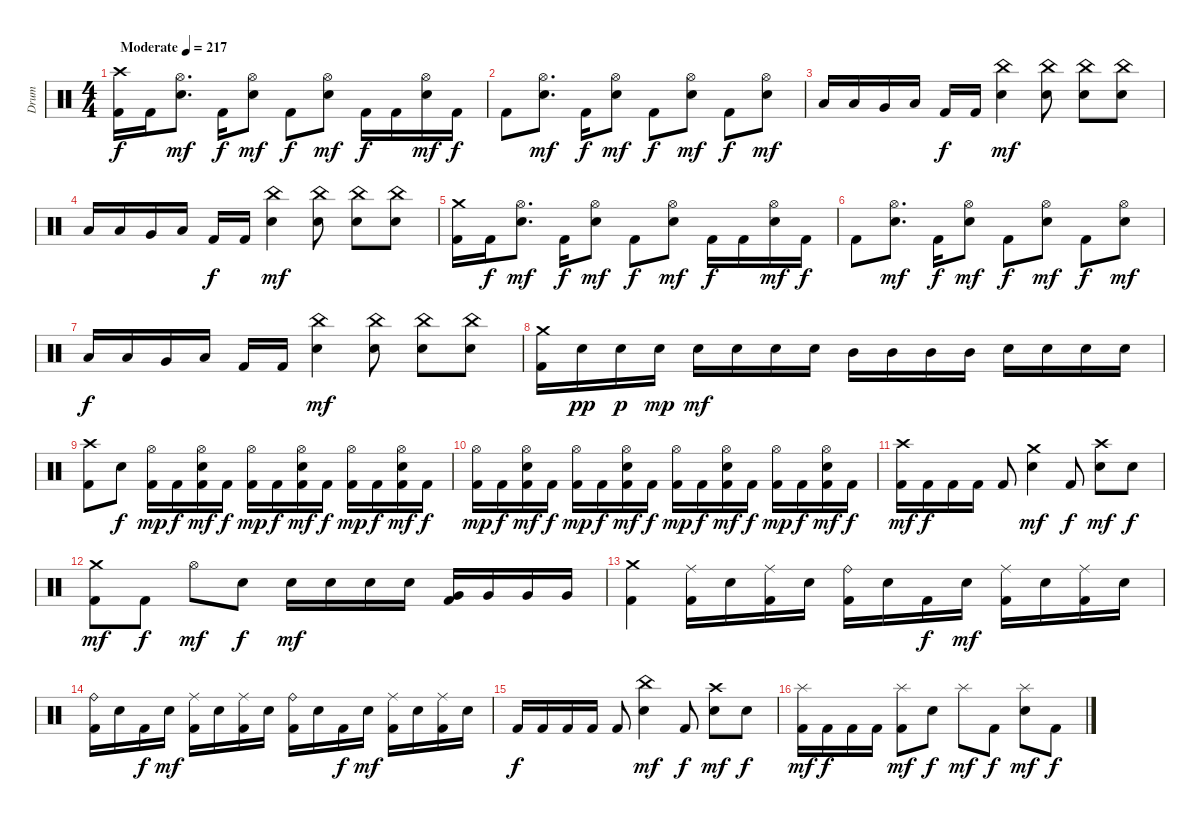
\track ("Drum" "Drum") {instrument percussion}
\staff {score}
\articulation defaults
\ts (4 4)
\tempo (217 "Moderate")
\clef neutral
\ks c
("Crash high (hit)" "Kick (hit) 2").16{dy f} "Kick (hit) 2".16 ("Hi-Hat (open)" "Electric Snare (hit)").8{d dy mf} "Kick (hit) 2".16{dy f} ("Hi-Hat (open)" "Electric Snare (hit)").8{dy mf} "Kick (hit) 2".8{dy f} ("Hi-Hat (open)" "Electric Snare (hit)").8{dy mf} "Kick (hit) 2".16{dy f} "Kick (hit) 2".16 ("Hi-Hat (open)" "Electric Snare (hit)").16{dy mf} "Kick (hit) 2".16{dy f} |
"Kick (hit) 2".8 ("Hi-Hat (open)" "Electric Snare (hit)").8{d dy mf} "Kick (hit) 2".16{dy f} ("Hi-Hat (open)" "Electric Snare (hit)").8{dy mf} "Kick (hit) 2".8{dy f} ("Hi-Hat (open)" "Electric Snare (hit)").8{dy mf} "Kick (hit) 2".8{dy f} ("Hi-Hat (open)" "Electric Snare (hit)").8{dy mf} |
"Low Tom (hit)".16 "Low Floor Tom (hit)".16 "Very Low Tom (hit)".16 "Low Floor Tom (hit)".16 "Kick (hit) 2".16{dy f} "Kick (hit) 2".16 ("China (hit)" "Electric Snare (hit)").4{dy mf} ("China (hit)" "Electric Snare (hit)").8 ("China (hit)" "Electric Snare (hit)").8 ("China (hit)" "Electric Snare (hit)").8 |
"Low Tom (hit)".16 "Low Floor Tom (hit)".16 "Very Low Tom (hit)".16 "Low Floor Tom (hit)".16 "Kick (hit) 2".16{dy f} "Kick (hit) 2".16 ("China (hit)" "Electric Snare (hit)").4{dy mf} ("China (hit)" "Electric Snare (hit)").8 ("China (hit)" "Electric Snare (hit)").8 ("China (hit)" "Electric Snare (hit)").8 |
("Crash medium (hit)" "Kick (hit) 2").16 "Kick (hit) 2".16{dy f} ("Hi-Hat (open)" "Electric Snare (hit)").8{d dy mf} "Kick (hit) 2".16{dy f} ("Hi-Hat (open)" "Electric Snare (hit)").8{dy mf} "Kick (hit) 2".8{dy f} ("Hi-Hat (open)" "Electric Snare (hit)").8{dy mf} "Kick (hit) 2".16{dy f} "Kick (hit) 2".16 ("Hi-Hat (open)" "Electric Snare (hit)").16{dy mf} "Kick (hit) 2".16{dy f} |
"Kick (hit) 2".8 ("Hi-Hat (open)" "Electric Snare (hit)").8{d dy mf} "Kick (hit) 2".16{dy f} ("Hi-Hat (open)" "Electric Snare (hit)").8{dy mf} "Kick (hit) 2".8{dy f} ("Hi-Hat (open)" "Electric Snare (hit)").8{dy mf} "Kick (hit) 2".8{dy f} ("Hi-Hat (open)" "Electric Snare (hit)").8{dy mf} |
"Low Tom (hit)".16{dy f} "Low Floor Tom (hit)".16 "Very Low Tom (hit)".16 "Low Floor Tom (hit)".16 "Kick (hit) 2".16 "Kick (hit) 2".16 ("China (hit)" "Electric Snare (hit)").4{dy mf} ("China (hit)" "Electric Snare (hit)").8 ("China (hit)" "Electric Snare (hit)").8 ("China (hit)" "Electric Snare (hit)").8 |
("Crash medium (hit)" "Kick (hit) 2").16 "Electric Snare (hit)".16{dy pp} "Electric Snare (hit)".16{dy p} "Electric Snare (hit)".16{dy mp} "Electric Snare (hit)".16{dy mf} "Electric Snare (hit)".16 "Electric Snare (hit)".16 "Electric Snare (hit)".16 "Mid Tom (hit)".16 "Mid Tom (hit)".16 "Mid Tom (hit)".16 "Mid Tom (hit)".16 "Electric Snare (hit)".16 "Electric Snare (hit)".16 "Electric Snare (hit)".16 "Electric Snare (hit)".16 |
("Crash high (hit)" "Kick (hit) 2").8 "Electric Snare (hit)".8{dy f} ("Hi-Hat (open)" "Kick (hit) 2").16{dy mp} "Kick (hit) 2".16{dy f} ("Hi-Hat (open)" "Electric Snare (hit)" "Kick (hit) 2").16{dy mf} "Kick (hit) 2".16{dy f} ("Hi-Hat (open)" "Kick (hit) 2").16{dy mp} "Kick (hit) 2".16{dy f} ("Hi-Hat (open)" "Electric Snare (hit)" "Kick (hit) 2").16{dy mf} "Kick (hit) 2".16{dy f} ("Hi-Hat (open)" "Kick (hit) 2").16{dy mp} "Kick (hit) 2".16{dy f} ("Hi-Hat (open)" "Electric Snare (hit)" "Kick (hit) 2").16{dy mf} "Kick (hit) 2".16{dy f} |
("Hi-Hat (open)" "Kick (hit) 2").16{dy mp} "Kick (hit) 2".16{dy f} ("Hi-Hat (open)" "Electric Snare (hit)" "Kick (hit) 2").16{dy mf} "Kick (hit) 2".16{dy f} ("Hi-Hat (open)" "Kick (hit) 2").16{dy mp} "Kick (hit) 2".16{dy f} ("Hi-Hat (open)" "Electric Snare (hit)" "Kick (hit) 2").16{dy mf} "Kick (hit) 2".16{dy f} ("Hi-Hat (open)" "Kick (hit) 2").16{dy mp} "Kick (hit) 2".16{dy f} ("Hi-Hat (open)" "Electric Snare (hit)" "Kick (hit) 2").16{dy mf} "Kick (hit) 2".16{dy f} ("Hi-Hat (open)" "Kick (hit) 2").16{dy mp} "Kick (hit) 2".16{dy f} ("Hi-Hat (open)" "Electric Snare (hit)" "Kick (hit) 2").16{dy mf} "Kick (hit) 2".16{dy f} |
("Crash high (hit)" "Kick (hit) 2").16{dy mf} "Kick (hit) 2".16{dy f} "Kick (hit) 2".16 "Kick (hit) 2".16 "Kick (hit) 2".8 ("Crash medium (hit)" "Electric Snare (hit)").4{dy mf} "Kick (hit) 2".8{dy f} ("Crash high (hit)" "Electric Snare (hit)").8{dy mf} "Electric Snare (hit)".8{dy f} |
("Crash medium (hit)" "Kick (hit) 2").8{dy mf} "Kick (hit) 2".8{dy f} "Hi-Hat (open)".8{dy mf} "Electric Snare (hit)".8{dy f} "Electric Snare (hit)".16{dy mf} "Electric Snare (hit)".16 "Electric Snare (hit)".16 "Electric Snare (hit)".16 ("Very Low Tom (hit)" "Kick (hit) 2").16 "Very Low Tom (hit)".16 "Very Low Tom (hit)".16 "Very Low Tom (hit)".16 |
("Crash medium (hit)" "Kick (hit) 2").4 ("Ride (middle)" "Kick (hit) 2").16 "Electric Snare (hit)".16 ("Ride (middle)" "Kick (hit) 2").16 "Electric Snare (hit)".16 ("Ride (bell)" "Kick (hit) 2").16 "Electric Snare (hit)".16 "Kick (hit) 2".16{dy f} "Electric Snare (hit)".16{dy mf} ("Ride (middle)" "Kick (hit) 2").16 "Electric Snare (hit)".16 ("Ride (middle)" "Kick (hit) 2").16 "Electric Snare (hit)".16 |
("Ride (bell)" "Kick (hit) 2").16 "Electric Snare (hit)".16 "Kick (hit) 2".16{dy f} "Electric Snare (hit)".16{dy mf} ("Ride (middle)" "Kick (hit) 2").16 "Electric Snare (hit)".16 ("Ride (middle)" "Kick (hit) 2").16 "Electric Snare (hit)".16 ("Ride (bell)" "Kick (hit) 2").16 "Electric Snare (hit)".16 "Kick (hit) 2".16{dy f} "Electric Snare (hit)".16{dy mf} ("Ride (middle)" "Kick (hit) 2").16 "Electric Snare (hit)".16 ("Ride (middle)" "Kick (hit) 2").16 "Electric Snare (hit)".16 |
"Kick (hit) 2".16{dy f} "Kick (hit) 2".16 "Kick (hit) 2".16 "Kick (hit) 2".16 "Kick (hit) 2".8 ("China (hit)" "Electric Snare (hit)").4{dy mf} "Kick (hit) 2".8{dy f} ("Crash high (hit)" "Electric Snare (hit)").8{dy mf} "Electric Snare (hit)".8{dy f} |
("Splash (hit)" "Kick (hit) 2").16{dy mf} "Kick (hit) 2".16{dy f} "Kick (hit) 2".16 "Kick (hit) 2".16 ("Splash (hit)" "Kick (hit) 2").8{dy mf} "Electric Snare (hit)".8{dy f} "Splash (hit)".8{dy mf} "Kick (hit) 2".8{dy f} ("Splash (hit)" "Electric Snare (hit)").8{dy mf} "Kick (hit) 2".8{dy f}
